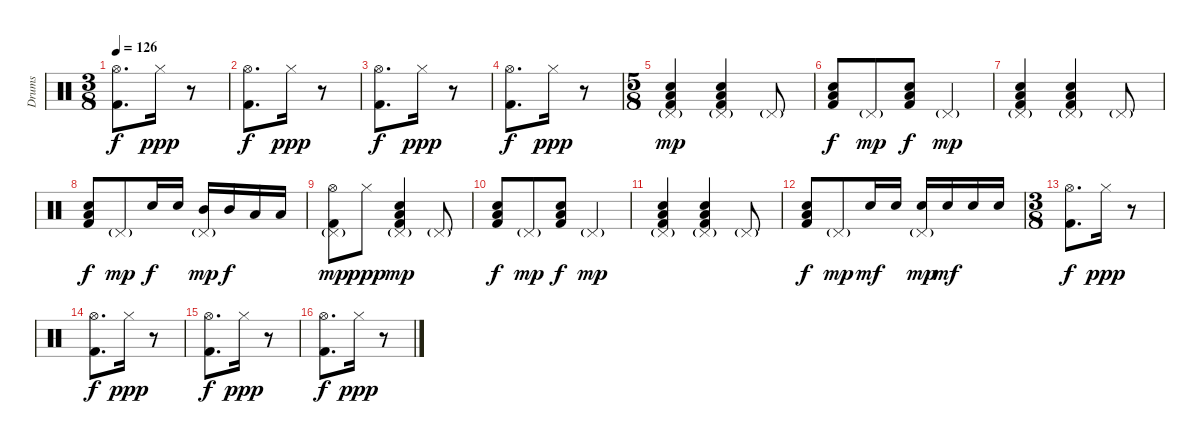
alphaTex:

\track ("Drums" "Drums") {instrument percussion}
\staff {score}
\articulation defaults
\ts (3 8)
\tempo 126
\clef neutral
\ks c
("Hi-Hat (open)" "Kick (hit) 2").8{d dy f} "Hi-Hat (closed)".16{dy ppp} r.8 |
("Hi-Hat (open)" "Kick (hit) 2").8{d dy f} "Hi-Hat (closed)".16{dy ppp} r.8 |
("Hi-Hat (open)" "Kick (hit) 2").8{d dy f} "Hi-Hat (closed)".16{dy ppp} r.8 |
("Hi-Hat (open)" "Kick (hit) 2").8{d dy f} "Hi-Hat (closed)".16{dy ppp} r.8 |
\ts (5 8)
("Pedal Hi-Hat (hit)"{g} "Low Tom (hit)" "Electric Snare (hit)" "Kick (hit) 2").4{dy mp} ("Pedal Hi-Hat (hit)"{g} "Low Tom (hit)" "Electric Snare (hit)" "Kick (hit) 2").4 "Pedal Hi-Hat (hit)"{g}.8 |
("Low Tom (hit)" "Electric Snare (hit)" "Kick (hit) 2").8{dy f} "Pedal Hi-Hat (hit)"{g}.8{dy mp} ("Low Tom (hit)" "Electric Snare (hit)" "Kick (hit) 2").8{dy f} "Pedal Hi-Hat (hit)"{g}.4{dy mp} |
("Pedal Hi-Hat (hit)"{g} "Low Tom (hit)" "Electric Snare (hit)" "Kick (hit) 2").4 ("Pedal Hi-Hat (hit)"{g} "Low Tom (hit)" "Electric Snare (hit)" "Kick (hit) 2").4 "Pedal Hi-Hat (hit)"{g}.8 |
("Low Tom (hit)" "Electric Snare (hit)" "Kick (hit) 2").8{dy f} "Pedal Hi-Hat (hit)"{g}.8{dy mp} "Electric Snare (hit)".16{dy f} "Electric Snare (hit)".16 ("Pedal Hi-Hat (hit)"{g} "Mid Tom (hit)").16{dy mp} "Mid Tom (hit)".16{dy f} "Low Tom (hit)".16 "Low Tom (hit)".16 |
("Pedal Hi-Hat (hit)"{g} "Hi-Hat (open)" "Kick (hit) 2").8{dy mp} "Hi-Hat (closed)".8{dy ppp} ("Pedal Hi-Hat (hit)"{g} "Low Tom (hit)" "Electric Snare (hit)" "Kick (hit) 2").4{dy mp} "Pedal Hi-Hat (hit)"{g}.8 |
("Low Tom (hit)" "Electric Snare (hit)" "Kick (hit) 2").8{dy f} "Pedal Hi-Hat (hit)"{g}.8{dy mp} ("Low Tom (hit)" "Electric Snare (hit)" "Kick (hit) 2").8{dy f} "Pedal Hi-Hat (hit)"{g}.4{dy mp} |
("Pedal Hi-Hat (hit)"{g} "Low Tom (hit)" "Electric Snare (hit)" "Kick (hit) 2").4 ("Pedal Hi-Hat (hit)"{g} "Low Tom (hit)" "Electric Snare (hit)" "Kick (hit) 2").4 "Pedal Hi-Hat (hit)"{g}.8 |
("Low Tom (hit)" "Electric Snare (hit)" "Kick (hit) 2").8{dy f} "Pedal Hi-Hat (hit)"{g}.8{dy mp} "Electric Snare (hit)".16{dy mf} "Electric Snare (hit)".16 ("Pedal Hi-Hat (hit)"{g} "Electric Snare (hit)").16{dy mp} "Electric Snare (hit)".16{dy mf} "Electric Snare (hit)".16 "Electric Snare (hit)".16 |
\ts (3 8)
("Hi-Hat (open)" "Kick (hit) 2").8{d dy f} "Hi-Hat (closed)".16{dy ppp} r.8 |
("Hi-Hat (open)" "Kick (hit) 2").8{d dy f} "Hi-Hat (closed)".16{dy ppp} r.8 |
("Hi-Hat (open)" "Kick (hit) 2").8{d dy f} "Hi-Hat (closed)".16{dy ppp} r.8 |
("Hi-Hat (open)" "Kick (hit) 2").8{d dy f} "Hi-Hat (closed)".16{dy ppp} r.8
